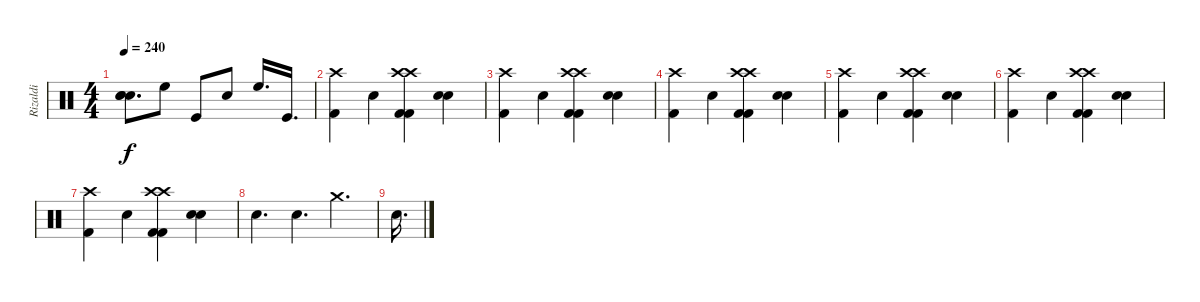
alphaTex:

\track ("Rizaldi" "Rizaldi") {instrument percussion}
\staff {score}
\articulation defaults
\ts (4 4)
\tempo 240
\clef neutral
\ks c
("Electric Snare (hit)" "Snare (hit) 2" "Snare (hit) 2").8{d dy f} "High Floor Tom (hit)".8 "Kick (hit)".8 "Snare (hit) 2".8 "High Floor Tom (hit)".16{d} "Kick (hit)".16{d} |
("Kick (hit) 2" "Crash high (hit)").4 "Snare (hit) 2".4 ("Kick (hit) 2" "Kick (hit) 2" "Crash high (hit)" "Crash high (hit)").4 ("Snare (hit) 2" "Snare (hit) 2").4 |
("Kick (hit) 2" "Crash high (hit)").4 "Snare (hit) 2".4 ("Kick (hit) 2" "Kick (hit) 2" "Crash high (hit)" "Crash high (hit)").4 ("Snare (hit) 2" "Snare (hit) 2").4 |
("Kick (hit) 2" "Crash high (hit)").4 "Snare (hit) 2".4 ("Kick (hit) 2" "Kick (hit) 2" "Crash high (hit)" "Crash high (hit)").4 ("Snare (hit) 2" "Snare (hit) 2").4 |
("Kick (hit) 2" "Crash high (hit)").4 "Snare (hit) 2".4 ("Kick (hit) 2" "Kick (hit) 2" "Crash high (hit)" "Crash high (hit)").4 ("Snare (hit) 2" "Snare (hit) 2").4 |
("Kick (hit) 2" "Crash high (hit)").4 "Snare (hit) 2".4 ("Kick (hit) 2" "Kick (hit) 2" "Crash high (hit)" "Crash high (hit)").4 ("Snare (hit) 2" "Snare (hit) 2").4 |
("Kick (hit) 2" "Crash high (hit)").4 "Snare (hit) 2".4 ("Kick (hit) 2" "Kick (hit) 2" "Crash high (hit)" "Crash high (hit)").4 ("Snare (hit) 2" "Snare (hit) 2").4 |
"Electric Snare (hit)".4{d} "Electric Snare (hit)".4{d} "Crash medium (hit)".4{d} |
"Snare (hit) 2".16{d}
